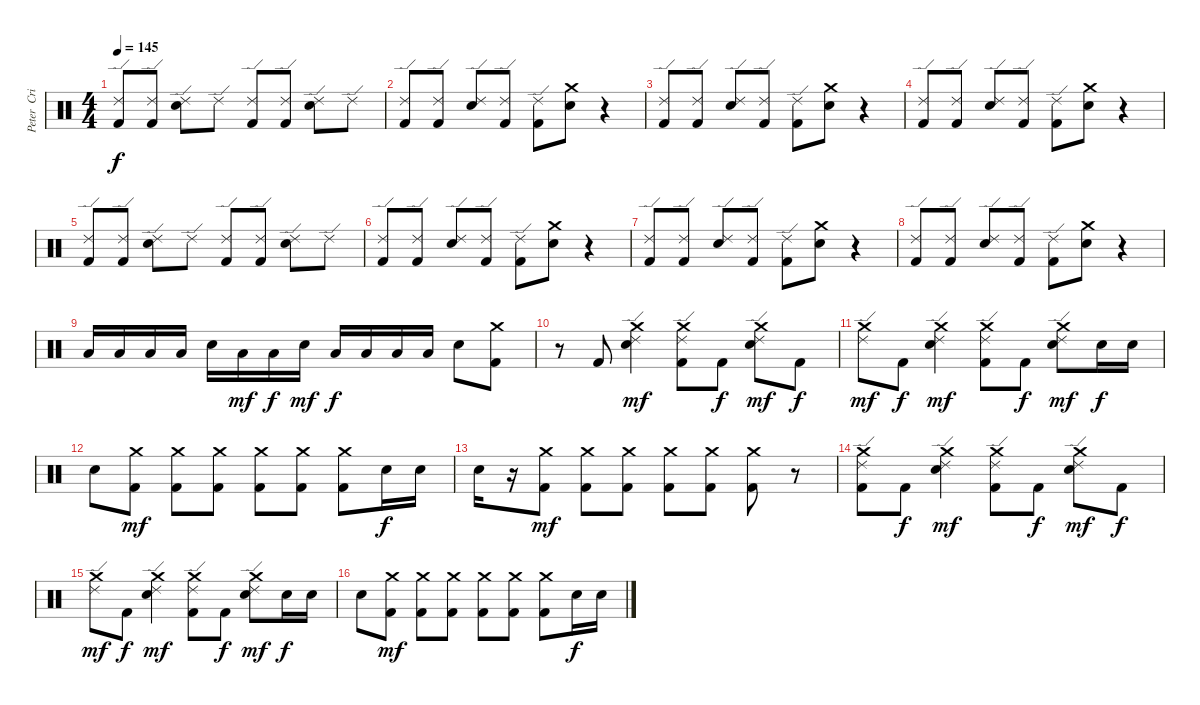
\track ("Peter  Criss [Drums]" "Peter  Cri") {instrument percussion}
\staff {score}
\articulation defaults
\ts (4 4)
\tempo 145
\clef neutral
\ks c
("Ride (edge) 2" "Kick (hit) 2").8{dy f} ("Ride (edge) 2" "Kick (hit) 2").8 ("Ride (edge) 2" "Electric Snare (hit)").8 "Ride (edge) 2".8 ("Ride (edge) 2" "Kick (hit) 2").8 ("Ride (edge) 2" "Kick (hit) 2").8 ("Ride (edge) 2" "Electric Snare (hit)").8 "Ride (edge) 2".8 |
("Ride (edge) 2" "Kick (hit) 2").8 ("Ride (edge) 2" "Kick (hit) 2").8 ("Ride (edge) 2" "Electric Snare (hit)").8 ("Ride (edge) 2" "Kick (hit) 2").8 ("Ride (edge) 2" "Kick (hit) 2").8 ("Crash medium (hit)" "Electric Snare (hit)").8 r.4 |
("Ride (edge) 2" "Kick (hit) 2").8 ("Ride (edge) 2" "Kick (hit) 2").8 ("Ride (edge) 2" "Electric Snare (hit)").8 ("Ride (edge) 2" "Kick (hit) 2").8 ("Ride (edge) 2" "Kick (hit) 2").8 ("Crash medium (hit)" "Electric Snare (hit)").8 r.4 |
("Ride (edge) 2" "Kick (hit) 2").8 ("Ride (edge) 2" "Kick (hit) 2").8 ("Ride (edge) 2" "Electric Snare (hit)").8 ("Ride (edge) 2" "Kick (hit) 2").8 ("Ride (edge) 2" "Kick (hit) 2").8 ("Crash medium (hit)" "Electric Snare (hit)").8 r.4 |
("Ride (edge) 2" "Kick (hit) 2").8 ("Ride (edge) 2" "Kick (hit) 2").8 ("Ride (edge) 2" "Electric Snare (hit)").8 "Ride (edge) 2".8 ("Ride (edge) 2" "Kick (hit) 2").8 ("Ride (edge) 2" "Kick (hit) 2").8 ("Ride (edge) 2" "Electric Snare (hit)").8 "Ride (edge) 2".8 |
("Ride (edge) 2" "Kick (hit) 2").8 ("Ride (edge) 2" "Kick (hit) 2").8 ("Ride (edge) 2" "Electric Snare (hit)").8 ("Ride (edge) 2" "Kick (hit) 2").8 ("Ride (edge) 2" "Kick (hit) 2").8 ("Crash medium (hit)" "Electric Snare (hit)").8 r.4 |
("Ride (edge) 2" "Kick (hit) 2").8 ("Ride (edge) 2" "Kick (hit) 2").8 ("Ride (edge) 2" "Electric Snare (hit)").8 ("Ride (edge) 2" "Kick (hit) 2").8 ("Ride (edge) 2" "Kick (hit) 2").8 ("Crash medium (hit)" "Electric Snare (hit)").8 r.4 |
("Ride (edge) 2" "Kick (hit) 2").8 ("Ride (edge) 2" "Kick (hit) 2").8 ("Ride (edge) 2" "Electric Snare (hit)").8 ("Ride (edge) 2" "Kick (hit) 2").8 ("Ride (edge) 2" "Kick (hit) 2").8 ("Crash medium (hit)" "Electric Snare (hit)").8 r.4 |
"Low Tom (hit)".16 "Low Tom (hit)".16 "Low Tom (hit)".16 "Low Tom (hit)".16 "Electric Snare (hit)".16 "Low Tom (hit)".16{dy mf} "Low Tom (hit)".16{dy f} "Electric Snare (hit)".16{dy mf} "Low Tom (hit)".16{dy f} "Low Tom (hit)".16 "Low Tom (hit)".16 "Low Tom (hit)".16 "Electric Snare (hit)".8 ("Crash medium (hit)" "Kick (hit) 2").8 |
r.8 "Kick (hit) 2".8 ("Ride (edge) 2" "Crash medium (hit)" "Electric Snare (hit)").4{dy mf} ("Ride (edge) 2" "Crash medium (hit)" "Kick (hit) 2").8 "Kick (hit) 2".8{dy f} ("Ride (edge) 2" "Crash medium (hit)" "Electric Snare (hit)").8{dy mf} "Kick (hit) 2".8{dy f} |
("Ride (edge) 2" "Crash medium (hit)").8{dy mf} "Kick (hit) 2".8{dy f} ("Ride (edge) 2" "Crash medium (hit)" "Electric Snare (hit)").4{dy mf} ("Ride (edge) 2" "Crash medium (hit)" "Kick (hit) 2").8 "Kick (hit) 2".8{dy f} ("Ride (edge) 2" "Crash medium (hit)" "Electric Snare (hit)").8{dy mf} "Electric Snare (hit)".16{dy f} "Electric Snare (hit)".16 |
"Electric Snare (hit)".8 ("Crash medium (hit)" "Kick (hit) 2").8{dy mf} ("Crash medium (hit)" "Kick (hit) 2").8 ("Crash medium (hit)" "Kick (hit) 2").8 ("Crash medium (hit)" "Kick (hit) 2").8 ("Crash medium (hit)" "Kick (hit) 2").8 ("Crash medium (hit)" "Kick (hit) 2").8 "Electric Snare (hit)".16{dy f} "Electric Snare (hit)".16 |
"Electric Snare (hit)".16 r.16 ("Crash medium (hit)" "Kick (hit) 2").8{dy mf} ("Crash medium (hit)" "Kick (hit) 2").8 ("Crash medium (hit)" "Kick (hit) 2").8 ("Crash medium (hit)" "Kick (hit) 2").8 ("Crash medium (hit)" "Kick (hit) 2").8 ("Crash medium (hit)" "Kick (hit) 2").8 r.8 |
("Crash medium (hit)" "Ride (edge) 2" "Kick (hit) 2").8 "Kick (hit) 2".8{dy f} ("Crash medium (hit)" "Ride (edge) 2" "Electric Snare (hit)").4{dy mf} ("Ride (edge) 2" "Crash medium (hit)" "Kick (hit) 2").8 "Kick (hit) 2".8{dy f} ("Ride (edge) 2" "Crash medium (hit)" "Electric Snare (hit)").8{dy mf} "Kick (hit) 2".8{dy f} |
("Crash medium (hit)" "Ride (edge) 2").8{dy mf} "Kick (hit) 2".8{dy f} ("Ride (edge) 2" "Crash medium (hit)" "Electric Snare (hit)").4{dy mf} ("Crash medium (hit)" "Ride (edge) 2" "Kick (hit) 2").8 "Kick (hit) 2".8{dy f} ("Crash medium (hit)" "Ride (edge) 2" "Electric Snare (hit)").8{dy mf} "Electric Snare (hit)".16{dy f} "Electric Snare (hit)".16 |
"Electric Snare (hit)".8 ("Crash medium (hit)" "Kick (hit) 2").8{dy mf} ("Crash medium (hit)" "Kick (hit) 2").8 ("Crash medium (hit)" "Kick (hit) 2").8 ("Crash medium (hit)" "Kick (hit) 2").8 ("Crash medium (hit)" "Kick (hit) 2").8 ("Crash medium (hit)" "Kick (hit) 2").8 "Electric Snare (hit)".16{dy f} "Electric Snare (hit)".16
